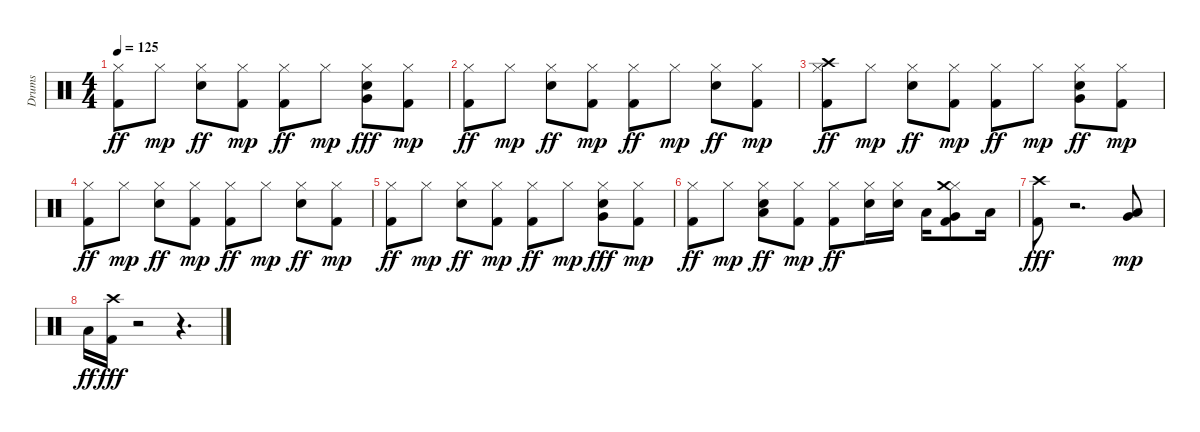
\track ("Drums" "Drums") {instrument percussion}
\staff {score}
\articulation defaults
\ts (4 4)
\tempo 125
\clef neutral
\ks c
("Hi-Hat (closed)" "Kick (hit) 2").8{dy ff} "Hi-Hat (closed)".8{dy mp} ("Snare (hit) 2" "Hi-Hat (closed)").8{dy ff} ("Hi-Hat (closed)" "Kick (hit) 2").8{dy mp} ("Hi-Hat (closed)" "Kick (hit) 2").8{dy ff} "Hi-Hat (closed)".8{dy mp} ("Snare (hit) 2" "Hi-Hat (closed)" "Very Low Tom (hit)").8{dy fff} ("Hi-Hat (closed)" "Kick (hit) 2").8{dy mp} |
("Hi-Hat (closed)" "Kick (hit) 2").8{dy ff} "Hi-Hat (closed)".8{dy mp} ("Hi-Hat (closed)" "Snare (hit) 2").8{dy ff} ("Hi-Hat (closed)" "Kick (hit) 2").8{dy mp} ("Kick (hit) 2" "Hi-Hat (closed)").8{dy ff} "Hi-Hat (closed)".8{dy mp} ("Hi-Hat (closed)" "Snare (hit) 2").8{dy ff} ("Hi-Hat (closed)" "Kick (hit) 2").8{dy mp} |
("Kick (hit) 2" "Hi-Hat (closed)" "Crash high (hit)").8{dy ff} "Hi-Hat (closed)".8{dy mp} ("Hi-Hat (closed)" "Snare (hit) 2").8{dy ff} ("Kick (hit) 2" "Hi-Hat (closed)").8{dy mp} ("Kick (hit) 2" "Hi-Hat (closed)").8{dy ff} "Hi-Hat (closed)".8{dy mp} ("Hi-Hat (closed)" "Very Low Tom (hit)" "Snare (hit) 2").8{dy ff} ("Kick (hit) 2" "Hi-Hat (closed)").8{dy mp} |
("Kick (hit) 2" "Hi-Hat (closed)").8{dy ff} "Hi-Hat (closed)".8{dy mp} ("Snare (hit) 2" "Hi-Hat (closed)").8{dy ff} ("Kick (hit) 2" "Hi-Hat (closed)").8{dy mp} ("Hi-Hat (closed)" "Kick (hit) 2").8{dy ff} "Hi-Hat (closed)".8{dy mp} ("Snare (hit) 2" "Hi-Hat (closed)").8{dy ff} ("Kick (hit) 2" "Hi-Hat (closed)").8{dy mp} |
("Kick (hit) 2" "Hi-Hat (closed)").8{dy ff} "Hi-Hat (closed)".8{dy mp} ("Hi-Hat (closed)" "Snare (hit) 2").8{dy ff} ("Hi-Hat (closed)" "Kick (hit) 2").8{dy mp} ("Hi-Hat (closed)" "Kick (hit) 2").8{dy ff} "Hi-Hat (closed)".8{dy mp} ("Snare (hit) 2" "Very Low Tom (hit)" "Hi-Hat (closed)").8{dy fff} ("Kick (hit) 2" "Hi-Hat (closed)").8{dy mp} |
("Hi-Hat (closed)" "Kick (hit) 2").8{dy ff} "Hi-Hat (closed)".8{dy mp} ("Low Tom (hit)" "Snare (hit) 2" "Hi-Hat (closed)").8{dy ff} ("Kick (hit) 2" "Hi-Hat (closed)").8{dy mp} ("Kick (hit) 2" "Hi-Hat (closed)").8{dy ff} ("Hi-Hat (closed)" "Snare (hit) 2").16 ("Snare (hit) 2" "Hi-Hat (closed)").16 "Low Tom (hit)".16 ("Kick (hit) 2" "Hi-Hat (closed)" "Crash medium (hit)" "Very Low Tom (hit)").8 "Low Floor Tom (hit)".16 |
("Crash high (hit)" "Kick (hit) 2").8{dy fff} r.2{d} ("Low Tom (hit)" "Very Low Tom (hit)").8{dy mp} |
"Low Floor Tom (hit)".16{dy ff} ("Crash high (hit)" "Kick (hit) 2").16{dy fff} r.2 r.4{d}
